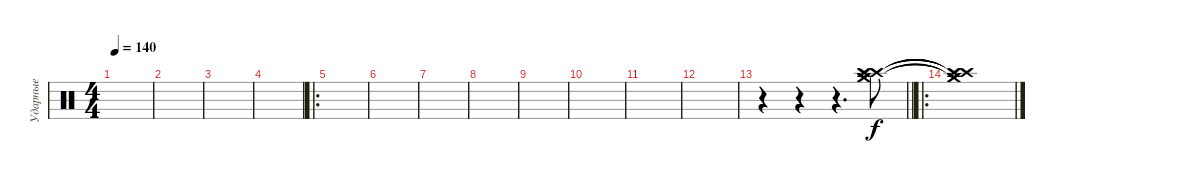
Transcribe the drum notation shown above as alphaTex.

\track ("Ударные" "Ударные") {instrument percussion}
\staff {score}
\articulation defaults
\ts (4 4)
\tempo 140
\clef neutral
\ks c
|
|
|
|
\ro
|
|
|
|
|
|
|
|
\barLineRight lightlight
r.4 r.4 r.4{d} ("Crash high (hit)" "Crash high (hit)" "Splash (hit)" "Crash medium (hit)" "Crash medium (hit)").8 |
\ro
("Crash high (hit)"{t} "Crash high (hit)"{t} "Splash (hit)"{t} "Crash medium (hit)"{t} "Crash medium (hit)"{t}).1{dy f}
